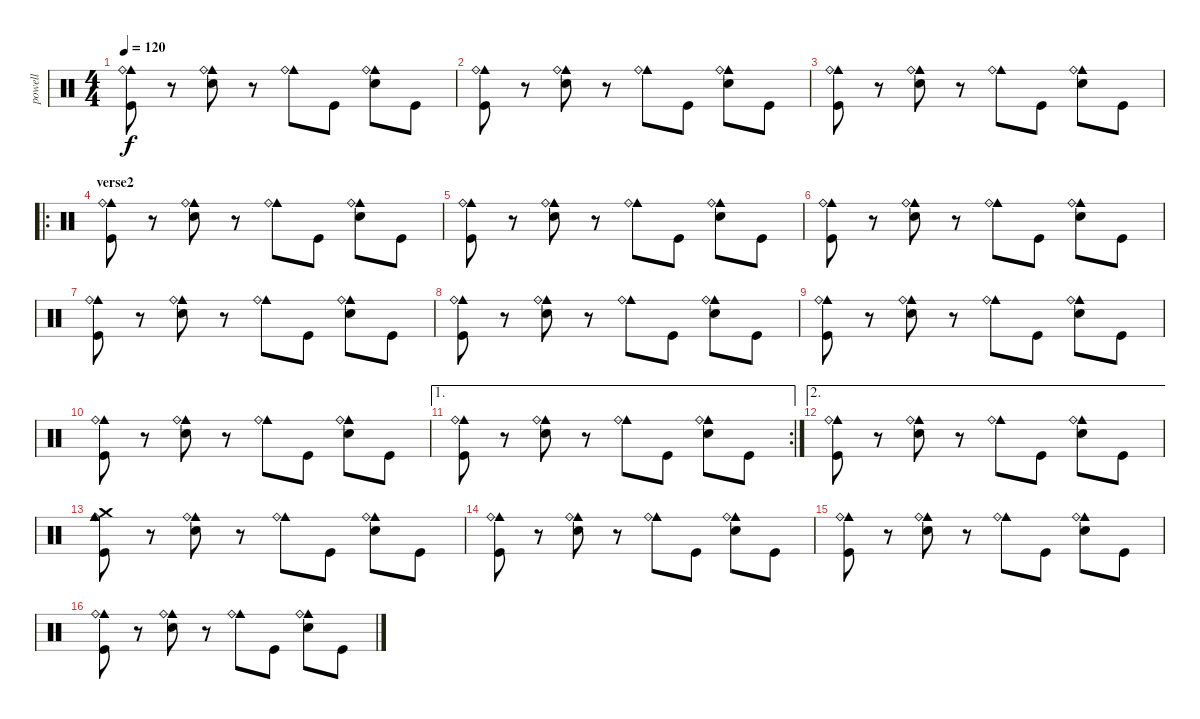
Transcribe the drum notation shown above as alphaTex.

\track ("powell" "powell") {instrument percussion}
\staff {score}
\articulation defaults
\ts (4 4)
\tempo 120
\clef neutral
\ks c
("Cowbell medium (hit)" "Ride (bell)" "Kick (hit)").8{dy f} r.8 ("Cowbell medium (hit)" "Ride (bell)" "Snare (hit) 2").8{volume 11} r.8 ("Cowbell medium (hit)" "Ride (bell)").8 "Kick (hit)".8 ("Cowbell medium (hit)" "Ride (bell)" "Snare (hit) 2").8 "Kick (hit)".8 |
("Cowbell medium (hit)" "Ride (bell)" "Kick (hit)").8 r.8 ("Cowbell medium (hit)" "Ride (bell)" "Snare (hit) 2").8{volume 11} r.8 ("Cowbell medium (hit)" "Ride (bell)").8 "Kick (hit)".8 ("Cowbell medium (hit)" "Ride (bell)" "Snare (hit) 2").8 "Kick (hit)".8 |
("Cowbell medium (hit)" "Ride (bell)" "Kick (hit)").8 r.8 ("Cowbell medium (hit)" "Ride (bell)" "Snare (hit) 2").8{volume 11} r.8 ("Cowbell medium (hit)" "Ride (bell)").8 "Kick (hit)".8 ("Cowbell medium (hit)" "Ride (bell)" "Snare (hit) 2").8 "Kick (hit)".8 |
\ro
\section ("" "verse2")
("Cowbell medium (hit)" "Ride (bell)" "Kick (hit)").8 r.8 ("Cowbell medium (hit)" "Ride (bell)" "Snare (hit) 2").8{volume 11} r.8 ("Cowbell medium (hit)" "Ride (bell)").8 "Kick (hit)".8 ("Cowbell medium (hit)" "Ride (bell)" "Snare (hit) 2").8 "Kick (hit)".8 |
("Cowbell medium (hit)" "Ride (bell)" "Kick (hit)").8 r.8 ("Cowbell medium (hit)" "Ride (bell)" "Snare (hit) 2").8{volume 11} r.8 ("Cowbell medium (hit)" "Ride (bell)").8 "Kick (hit)".8 ("Cowbell medium (hit)" "Ride (bell)" "Snare (hit) 2").8 "Kick (hit)".8 |
("Cowbell medium (hit)" "Ride (bell)" "Kick (hit)").8 r.8 ("Cowbell medium (hit)" "Ride (bell)" "Snare (hit) 2").8{volume 11} r.8 ("Cowbell medium (hit)" "Ride (bell)").8 "Kick (hit)".8 ("Cowbell medium (hit)" "Ride (bell)" "Snare (hit) 2").8 "Kick (hit)".8 |
("Cowbell medium (hit)" "Ride (bell)" "Kick (hit)").8 r.8 ("Cowbell medium (hit)" "Ride (bell)" "Snare (hit) 2").8{volume 11} r.8 ("Cowbell medium (hit)" "Ride (bell)").8 "Kick (hit)".8 ("Cowbell medium (hit)" "Ride (bell)" "Snare (hit) 2").8 "Kick (hit)".8 |
("Cowbell medium (hit)" "Ride (bell)" "Kick (hit)").8 r.8 ("Cowbell medium (hit)" "Ride (bell)" "Snare (hit) 2").8{volume 11} r.8 ("Cowbell medium (hit)" "Ride (bell)").8 "Kick (hit)".8 ("Cowbell medium (hit)" "Ride (bell)" "Snare (hit) 2").8 "Kick (hit)".8 |
("Cowbell medium (hit)" "Ride (bell)" "Kick (hit)").8 r.8 ("Cowbell medium (hit)" "Ride (bell)" "Snare (hit) 2").8{volume 11} r.8 ("Cowbell medium (hit)" "Ride (bell)").8 "Kick (hit)".8 ("Cowbell medium (hit)" "Ride (bell)" "Snare (hit) 2").8 "Kick (hit)".8 |
("Cowbell medium (hit)" "Ride (bell)" "Kick (hit)").8 r.8 ("Cowbell medium (hit)" "Ride (bell)" "Snare (hit) 2").8{volume 11} r.8 ("Cowbell medium (hit)" "Ride (bell)").8 "Kick (hit)".8 ("Cowbell medium (hit)" "Ride (bell)" "Snare (hit) 2").8 "Kick (hit)".8 |
\ae 1
\rc 2
("Cowbell medium (hit)" "Ride (bell)" "Kick (hit)").8 r.8 ("Cowbell medium (hit)" "Ride (bell)" "Snare (hit) 2").8{volume 11} r.8 ("Cowbell medium (hit)" "Ride (bell)").8 "Kick (hit)".8 ("Cowbell medium (hit)" "Ride (bell)" "Snare (hit) 2").8 "Kick (hit)".8 |
\ae 2
("Cowbell medium (hit)" "Ride (bell)" "Kick (hit)").8 r.8 ("Cowbell medium (hit)" "Ride (bell)" "Snare (hit) 2").8{volume 11} r.8 ("Cowbell medium (hit)" "Ride (bell)").8 "Kick (hit)".8 ("Cowbell medium (hit)" "Ride (bell)" "Snare (hit) 2").8 "Kick (hit)".8 |
("Cowbell medium (hit)" "Ride (bell)" "Crash medium (hit)" "Kick (hit)").8 r.8 ("Cowbell medium (hit)" "Ride (bell)" "Snare (hit) 2").8{volume 11} r.8 ("Cowbell medium (hit)" "Ride (bell)").8 "Kick (hit)".8 ("Cowbell medium (hit)" "Ride (bell)" "Snare (hit) 2").8 "Kick (hit)".8 |
("Cowbell medium (hit)" "Ride (bell)" "Kick (hit)").8 r.8 ("Cowbell medium (hit)" "Ride (bell)" "Snare (hit) 2").8{volume 11} r.8 ("Cowbell medium (hit)" "Ride (bell)").8 "Kick (hit)".8 ("Cowbell medium (hit)" "Ride (bell)" "Snare (hit) 2").8 "Kick (hit)".8 |
("Cowbell medium (hit)" "Ride (bell)" "Kick (hit)").8 r.8 ("Cowbell medium (hit)" "Ride (bell)" "Snare (hit) 2").8{volume 11} r.8 ("Cowbell medium (hit)" "Ride (bell)").8 "Kick (hit)".8 ("Cowbell medium (hit)" "Ride (bell)" "Snare (hit) 2").8 "Kick (hit)".8 |
("Cowbell medium (hit)" "Ride (bell)" "Kick (hit)").8 r.8 ("Cowbell medium (hit)" "Ride (bell)" "Snare (hit) 2").8{volume 11} r.8 ("Cowbell medium (hit)" "Ride (bell)").8 "Kick (hit)".8 ("Cowbell medium (hit)" "Ride (bell)" "Snare (hit) 2").8 "Kick (hit)".8
